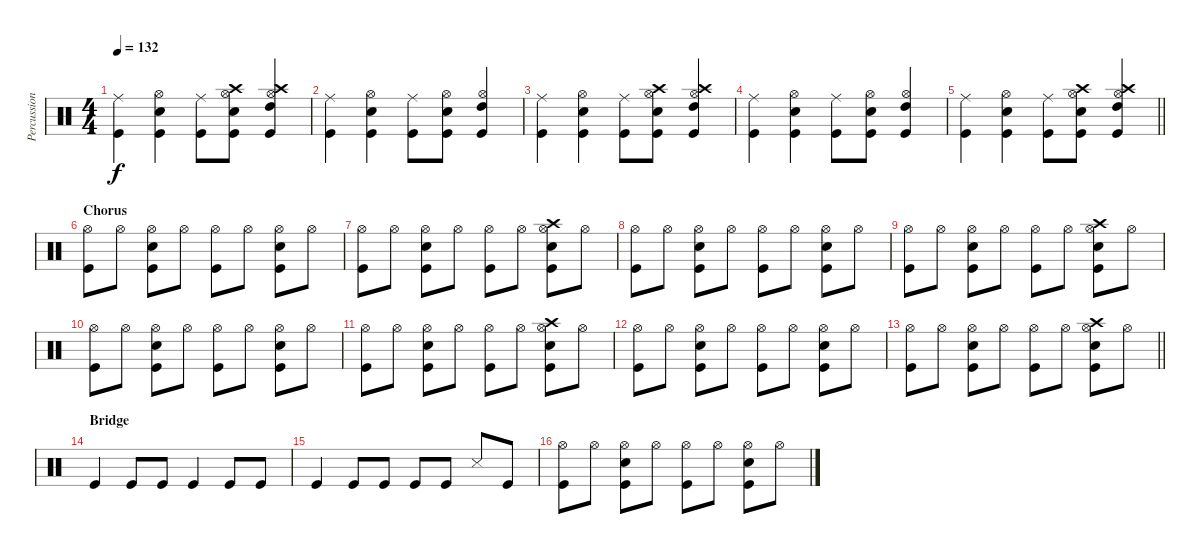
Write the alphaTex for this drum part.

\track ("Percussions" "Percussion") {instrument percussion}
\staff {score}
\articulation defaults
\ts (4 4)
\tempo 132
\clef neutral
\ks c
("Ride (middle)" "Kick (hit)").4{dy f} ("Snare (hit) 2" "Hi-Hat (open)" "Kick (hit)").4 ("Ride (middle)" "Kick (hit)").8 ("Snare (hit) 2" "Hi-Hat (open)" "Crash high (hit)" "Kick (hit)").8 ("High Tom (hit)" "Hi-Hat (open)" "Crash high (hit)" "Kick (hit)").4 |
("Ride (middle)" "Kick (hit)").4 ("Snare (hit) 2" "Hi-Hat (open)" "Kick (hit)").4 ("Ride (middle)" "Kick (hit)").8 ("Snare (hit) 2" "Hi-Hat (open)" "Kick (hit)").8 ("High Tom (hit)" "Hi-Hat (open)" "Kick (hit)").4 |
("Ride (middle)" "Kick (hit)").4 ("Snare (hit) 2" "Hi-Hat (open)" "Kick (hit)").4 ("Ride (middle)" "Kick (hit)").8 ("Snare (hit) 2" "Hi-Hat (open)" "Crash high (hit)" "Kick (hit)").8 ("High Tom (hit)" "Hi-Hat (open)" "Crash high (hit)" "Kick (hit)").4 |
("Ride (middle)" "Kick (hit)").4 ("Snare (hit) 2" "Hi-Hat (open)" "Kick (hit)").4 ("Ride (middle)" "Kick (hit)").8 ("Snare (hit) 2" "Hi-Hat (open)" "Kick (hit)").8 ("High Tom (hit)" "Hi-Hat (open)" "Kick (hit)").4 |
\barLineRight lightlight
("Ride (middle)" "Kick (hit)").4 ("Snare (hit) 2" "Hi-Hat (open)" "Kick (hit)").4 ("Ride (middle)" "Kick (hit)").8 ("Snare (hit) 2" "Hi-Hat (open)" "Crash high (hit)" "Kick (hit)").8 ("High Tom (hit)" "Hi-Hat (open)" "Crash high (hit)" "Kick (hit)").4 |
\section ("" "Chorus")
("Hi-Hat (open)" "Kick (hit)").8 "Hi-Hat (open)".8 ("Snare (hit) 2" "Hi-Hat (open)" "Kick (hit)").8 "Hi-Hat (open)".8 ("Hi-Hat (open)" "Kick (hit)").8 "Hi-Hat (open)".8 ("Snare (hit) 2" "Hi-Hat (open)" "Kick (hit)").8 "Hi-Hat (open)".8 |
("Hi-Hat (open)" "Kick (hit)").8 "Hi-Hat (open)".8 ("Snare (hit) 2" "Hi-Hat (open)" "Kick (hit)").8 "Hi-Hat (open)".8 ("Hi-Hat (open)" "Kick (hit)").8 "Hi-Hat (open)".8 ("Snare (hit) 2" "Hi-Hat (open)" "Crash high (hit)" "Kick (hit)").8 "Hi-Hat (open)".8 |
("Hi-Hat (open)" "Kick (hit)").8 "Hi-Hat (open)".8 ("Snare (hit) 2" "Hi-Hat (open)" "Kick (hit)").8 "Hi-Hat (open)".8 ("Hi-Hat (open)" "Kick (hit)").8 "Hi-Hat (open)".8 ("Snare (hit) 2" "Hi-Hat (open)" "Kick (hit)").8 "Hi-Hat (open)".8 |
("Hi-Hat (open)" "Kick (hit)").8 "Hi-Hat (open)".8 ("Snare (hit) 2" "Hi-Hat (open)" "Kick (hit)").8 "Hi-Hat (open)".8 ("Hi-Hat (open)" "Kick (hit)").8 "Hi-Hat (open)".8 ("Snare (hit) 2" "Hi-Hat (open)" "Crash high (hit)" "Kick (hit)").8 "Hi-Hat (open)".8 |
("Hi-Hat (open)" "Kick (hit)").8 "Hi-Hat (open)".8 ("Snare (hit) 2" "Hi-Hat (open)" "Kick (hit)").8 "Hi-Hat (open)".8 ("Hi-Hat (open)" "Kick (hit)").8 "Hi-Hat (open)".8 ("Snare (hit) 2" "Hi-Hat (open)" "Kick (hit)").8 "Hi-Hat (open)".8 |
("Hi-Hat (open)" "Kick (hit)").8 "Hi-Hat (open)".8 ("Snare (hit) 2" "Hi-Hat (open)" "Kick (hit)").8 "Hi-Hat (open)".8 ("Hi-Hat (open)" "Kick (hit)").8 "Hi-Hat (open)".8 ("Snare (hit) 2" "Hi-Hat (open)" "Crash high (hit)" "Kick (hit)").8 "Hi-Hat (open)".8 |
("Hi-Hat (open)" "Kick (hit)").8 "Hi-Hat (open)".8 ("Snare (hit) 2" "Hi-Hat (open)" "Kick (hit)").8 "Hi-Hat (open)".8 ("Hi-Hat (open)" "Kick (hit)").8 "Hi-Hat (open)".8 ("Snare (hit) 2" "Hi-Hat (open)" "Kick (hit)").8 "Hi-Hat (open)".8 |
\barLineRight lightlight
("Hi-Hat (open)" "Kick (hit)").8 "Hi-Hat (open)".8 ("Snare (hit) 2" "Hi-Hat (open)" "Kick (hit)").8 "Hi-Hat (open)".8 ("Hi-Hat (open)" "Kick (hit)").8 "Hi-Hat (open)".8 ("Snare (hit) 2" "Hi-Hat (open)" "Crash high (hit)" "Kick (hit)").8 "Hi-Hat (open)".8 |
\section ("" "Bridge")
"Kick (hit)".4 "Kick (hit)".8 "Kick (hit)".8 "Kick (hit)".4 "Kick (hit)".8 "Kick (hit)".8 |
"Kick (hit)".4 "Kick (hit)".8 "Kick (hit)".8 "Kick (hit)".8 "Kick (hit)".8 "Snare (side stick) 3".8 "Kick (hit)".8 |
("Hi-Hat (open)" "Kick (hit)").8 "Hi-Hat (open)".8 ("Snare (hit) 2" "Hi-Hat (open)" "Kick (hit)").8 "Hi-Hat (open)".8 ("Hi-Hat (open)" "Kick (hit)").8 "Hi-Hat (open)".8 ("Snare (hit) 2" "Hi-Hat (open)" "Kick (hit)").8 "Hi-Hat (open)".8
